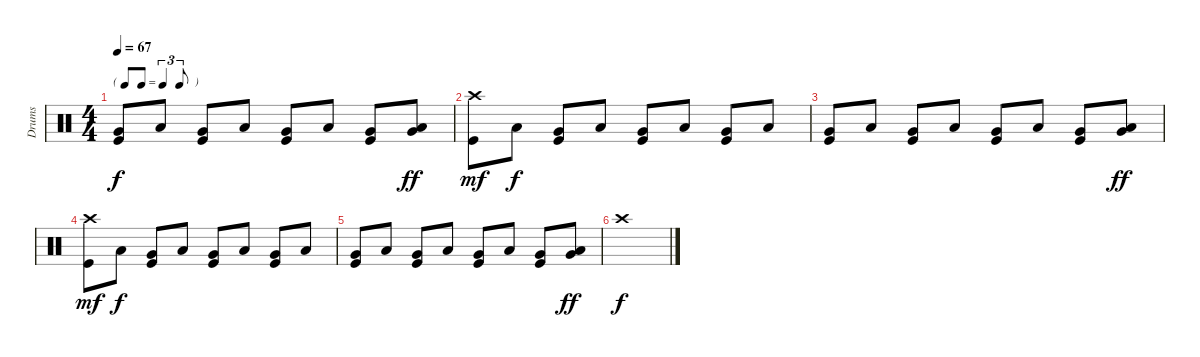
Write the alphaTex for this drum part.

\track (" Drums " " Drums ") {instrument percussion}
\staff {score}
\articulation defaults
\ts (4 4)
\tf triplet8th
\tempo 67
\clef neutral
\ks c
("Very Low Tom (hit)" "Kick (hit)").8{dy f} "Low Floor Tom (hit)".8 ("Very Low Tom (hit)" "Kick (hit)").8 "Low Floor Tom (hit)".8 ("Very Low Tom (hit)" "Kick (hit)").8 "Low Floor Tom (hit)".8 ("Very Low Tom (hit)" "Kick (hit)").8 ("Low Floor Tom (hit)" "Very Low Tom (hit)").8{dy ff} |
("Crash high (hit)" "Kick (hit)").8{dy mf} "Low Floor Tom (hit)".8{dy f} ("Very Low Tom (hit)" "Kick (hit)").8 "Low Floor Tom (hit)".8 ("Very Low Tom (hit)" "Kick (hit)").8 "Low Floor Tom (hit)".8 ("Very Low Tom (hit)" "Kick (hit)").8 "Low Floor Tom (hit)".8 |
("Very Low Tom (hit)" "Kick (hit)").8 "Low Floor Tom (hit)".8 ("Very Low Tom (hit)" "Kick (hit)").8 "Low Floor Tom (hit)".8 ("Very Low Tom (hit)" "Kick (hit)").8 "Low Floor Tom (hit)".8 ("Very Low Tom (hit)" "Kick (hit)").8 ("Low Floor Tom (hit)" "Very Low Tom (hit)").8{dy ff} |
("Crash high (hit)" "Kick (hit)").8{dy mf} "Low Floor Tom (hit)".8{dy f} ("Very Low Tom (hit)" "Kick (hit)").8 "Low Floor Tom (hit)".8 ("Very Low Tom (hit)" "Kick (hit)").8 "Low Floor Tom (hit)".8 ("Very Low Tom (hit)" "Kick (hit)").8 "Low Floor Tom (hit)".8 |
("Very Low Tom (hit)" "Kick (hit)").8 "Low Floor Tom (hit)".8 ("Very Low Tom (hit)" "Kick (hit)").8 "Low Floor Tom (hit)".8 ("Very Low Tom (hit)" "Kick (hit)").8 "Low Floor Tom (hit)".8 ("Very Low Tom (hit)" "Kick (hit)").8 ("Low Floor Tom (hit)" "Very Low Tom (hit)").8{dy ff} |
"Crash high (hit)".1{dy f}
